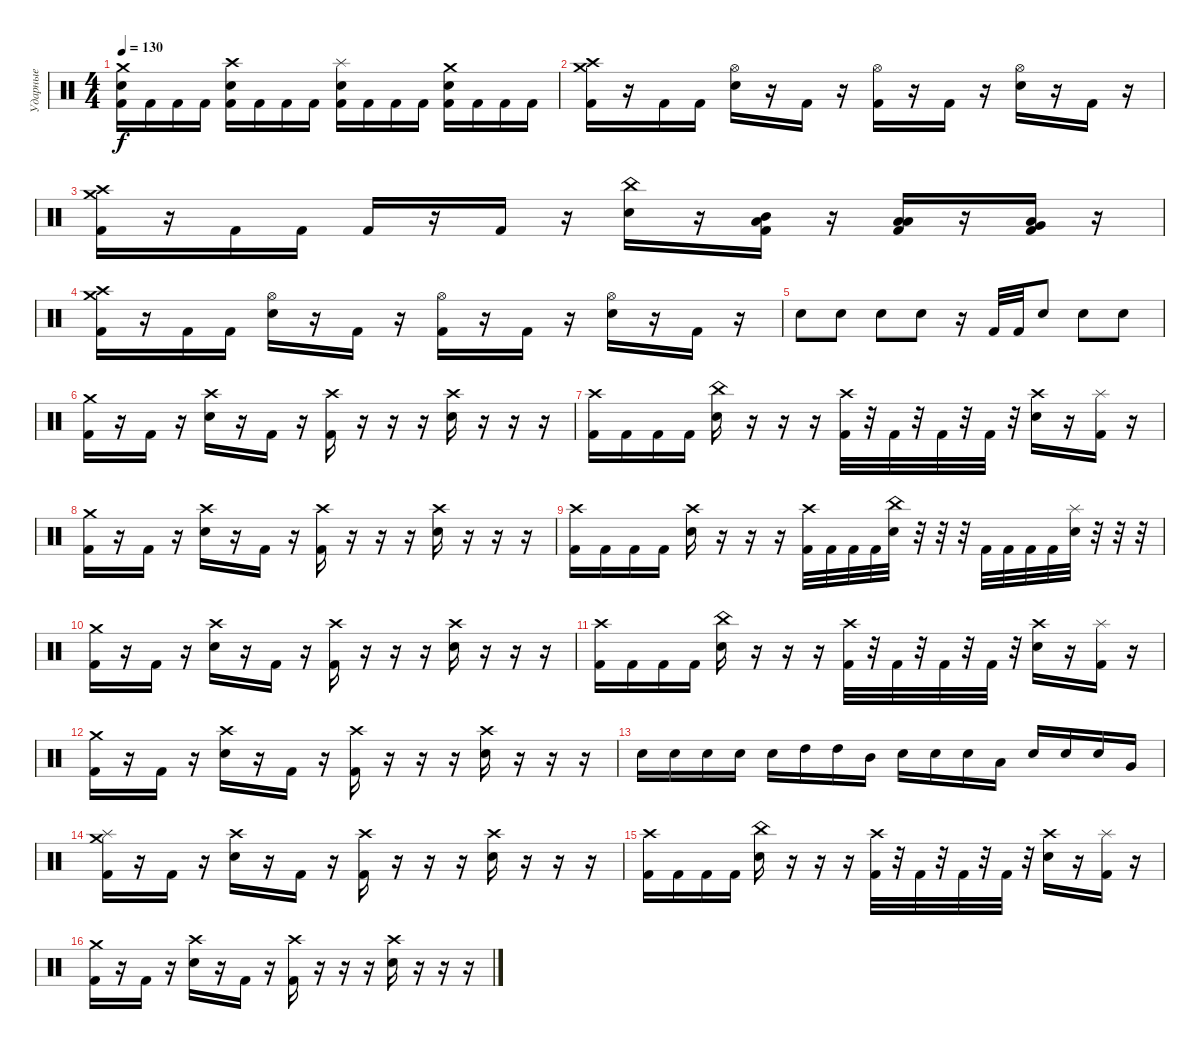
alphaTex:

\track ("Ударные" "Ударные") {instrument percussion}
\staff {score}
\articulation defaults
\ts (4 4)
\tempo 130
\clef neutral
\ks c
("Kick (hit) 2" "Electric Snare (hit)" "Crash medium (hit)").16{dy f} "Kick (hit) 2".16 "Kick (hit) 2".16 "Kick (hit) 2".16 ("Kick (hit) 2" "Electric Snare (hit)" "Crash high (hit)").16 "Kick (hit) 2".16 "Kick (hit) 2".16 "Kick (hit) 2".16 ("Kick (hit) 2" "Electric Snare (hit)" "Splash (hit)").16 "Kick (hit) 2".16 "Kick (hit) 2".16 "Kick (hit) 2".16 ("Kick (hit) 2" "Electric Snare (hit)" "Crash medium (hit)").16 "Kick (hit) 2".16 "Kick (hit) 2".16 "Kick (hit) 2".16 |
("Kick (hit) 2" "Crash high (hit)" "Crash medium (hit)").16 r.16 "Kick (hit) 2".16 "Kick (hit) 2".16 ("Electric Snare (hit)" "Hi-Hat (open)").16 r.16 "Kick (hit) 2".16 r.16 ("Kick (hit) 2" "Hi-Hat (open)").16 r.16 "Kick (hit) 2".16 r.16 ("Electric Snare (hit)" "Hi-Hat (open)").16 r.16 "Kick (hit) 2".16 r.16 |
("Kick (hit) 2" "Crash high (hit)" "Crash medium (hit)").16 r.16 "Kick (hit) 2".16 "Kick (hit) 2".16 "Kick (hit) 2".16 r.16 "Kick (hit) 2".16 r.16 ("Electric Snare (hit)" "China (hit)").16 r.16 ("Kick (hit) 2" "Low Floor Tom (hit)" "Mid Tom (hit)").16 r.16 ("Kick (hit) 2" "Low Floor Tom (hit)" "Low Tom (hit)").16 r.16 ("Kick (hit) 2" "Low Floor Tom (hit)" "Very Low Tom (hit)").16 r.16 |
("Kick (hit) 2" "Crash high (hit)" "Crash medium (hit)").16 r.16 "Kick (hit) 2".16 "Kick (hit) 2".16 ("Electric Snare (hit)" "Hi-Hat (open)").16 r.16 "Kick (hit) 2".16 r.16 ("Kick (hit) 2" "Hi-Hat (open)").16 r.16 "Kick (hit) 2".16 r.16 ("Electric Snare (hit)" "Hi-Hat (open)").16 r.16 "Kick (hit) 2".16 r.16 |
"Electric Snare (hit)".8 "Electric Snare (hit)".8 "Electric Snare (hit)".8 "Electric Snare (hit)".8 r.16 "Kick (hit) 2".32 "Kick (hit) 2".32 "Electric Snare (hit)".8 "Electric Snare (hit)".8 "Electric Snare (hit)".8 |
("Kick (hit) 2" "Crash medium (hit)").16 r.16 "Kick (hit) 2".16 r.16 ("Electric Snare (hit)" "Crash high (hit)").16 r.16 "Kick (hit) 2".16 r.16 ("Kick (hit) 2" "Crash high (hit)").16 r.16 r.16 r.16 ("Electric Snare (hit)" "Crash high (hit)").16 r.16 r.16 r.16 |
("Kick (hit) 2" "Crash high (hit)").16 "Kick (hit) 2".16 "Kick (hit) 2".16 "Kick (hit) 2".16 ("Electric Snare (hit)" "China (hit)").16 r.16 r.16 r.16 ("Kick (hit) 2" "Crash high (hit)").32 r.32 "Kick (hit) 2".32 r.32 "Kick (hit) 2".32 r.32 "Kick (hit) 2".32 r.32 ("Electric Snare (hit)" "Crash high (hit)").16 r.16 ("Kick (hit) 2" "Splash (hit)").16 r.16 |
("Kick (hit) 2" "Crash medium (hit)").16 r.16 "Kick (hit) 2".16 r.16 ("Electric Snare (hit)" "Crash high (hit)").16 r.16 "Kick (hit) 2".16 r.16 ("Kick (hit) 2" "Crash high (hit)").16 r.16 r.16 r.16 ("Electric Snare (hit)" "Crash high (hit)").16 r.16 r.16 r.16 |
("Kick (hit) 2" "Crash high (hit)").16 "Kick (hit) 2".16 "Kick (hit) 2".16 "Kick (hit) 2".16 ("Electric Snare (hit)" "Crash high (hit)").16 r.16 r.16 r.16 ("Kick (hit) 2" "Crash high (hit)").32 "Kick (hit) 2".32 "Kick (hit) 2".32 "Kick (hit) 2".32 ("Electric Snare (hit)" "China (hit)").32 r.32 r.32 r.32 "Kick (hit) 2".32 "Kick (hit) 2".32 "Kick (hit) 2".32 "Kick (hit) 2".32 ("Electric Snare (hit)" "Splash (hit)").32 r.32 r.32 r.32 |
("Kick (hit) 2" "Crash medium (hit)").16 r.16 "Kick (hit) 2".16 r.16 ("Electric Snare (hit)" "Crash high (hit)").16 r.16 "Kick (hit) 2".16 r.16 ("Kick (hit) 2" "Crash high (hit)").16 r.16 r.16 r.16 ("Electric Snare (hit)" "Crash high (hit)").16 r.16 r.16 r.16 |
("Kick (hit) 2" "Crash high (hit)").16 "Kick (hit) 2".16 "Kick (hit) 2".16 "Kick (hit) 2".16 ("Electric Snare (hit)" "China (hit)").16 r.16 r.16 r.16 ("Kick (hit) 2" "Crash high (hit)").32 r.32 "Kick (hit) 2".32 r.32 "Kick (hit) 2".32 r.32 "Kick (hit) 2".32 r.32 ("Electric Snare (hit)" "Crash high (hit)").16 r.16 ("Kick (hit) 2" "Splash (hit)").16 r.16 |
("Kick (hit) 2" "Crash medium (hit)").16 r.16 "Kick (hit) 2".16 r.16 ("Electric Snare (hit)" "Crash high (hit)").16 r.16 "Kick (hit) 2".16 r.16 ("Kick (hit) 2" "Crash high (hit)").16 r.16 r.16 r.16 ("Electric Snare (hit)" "Crash high (hit)").16 r.16 r.16 r.16 |
"Electric Snare (hit)".16 "Electric Snare (hit)".16 "Electric Snare (hit)".16 "Electric Snare (hit)".16 "Electric Snare (hit)".16 "High Tom (hit)".16 "High Tom (hit)".16 "Mid Tom (hit)".16 "Electric Snare (hit)".16 "Electric Snare (hit)".16 "Electric Snare (hit)".16 "Low Tom (hit)".16 "Electric Snare (hit)".16 "Electric Snare (hit)".16 "Electric Snare (hit)".16 "Very Low Tom (hit)".16 |
("Kick (hit) 2" "Splash (hit)" "Crash medium (hit)").16 r.16 "Kick (hit) 2".16 r.16 ("Electric Snare (hit)" "Crash high (hit)").16 r.16 "Kick (hit) 2".16 r.16 ("Kick (hit) 2" "Crash high (hit)").16 r.16 r.16 r.16 ("Electric Snare (hit)" "Crash high (hit)").16 r.16 r.16 r.16 |
("Kick (hit) 2" "Crash high (hit)").16 "Kick (hit) 2".16 "Kick (hit) 2".16 "Kick (hit) 2".16 ("Electric Snare (hit)" "China (hit)").16 r.16 r.16 r.16 ("Kick (hit) 2" "Crash high (hit)").32 r.32 "Kick (hit) 2".32 r.32 "Kick (hit) 2".32 r.32 "Kick (hit) 2".32 r.32 ("Electric Snare (hit)" "Crash high (hit)").16 r.16 ("Kick (hit) 2" "Splash (hit)").16 r.16 |
("Kick (hit) 2" "Crash medium (hit)").16 r.16 "Kick (hit) 2".16 r.16 ("Electric Snare (hit)" "Crash high (hit)").16 r.16 "Kick (hit) 2".16 r.16 ("Kick (hit) 2" "Crash high (hit)").16 r.16 r.16 r.16 ("Electric Snare (hit)" "Crash high (hit)").16 r.16 r.16 r.16
